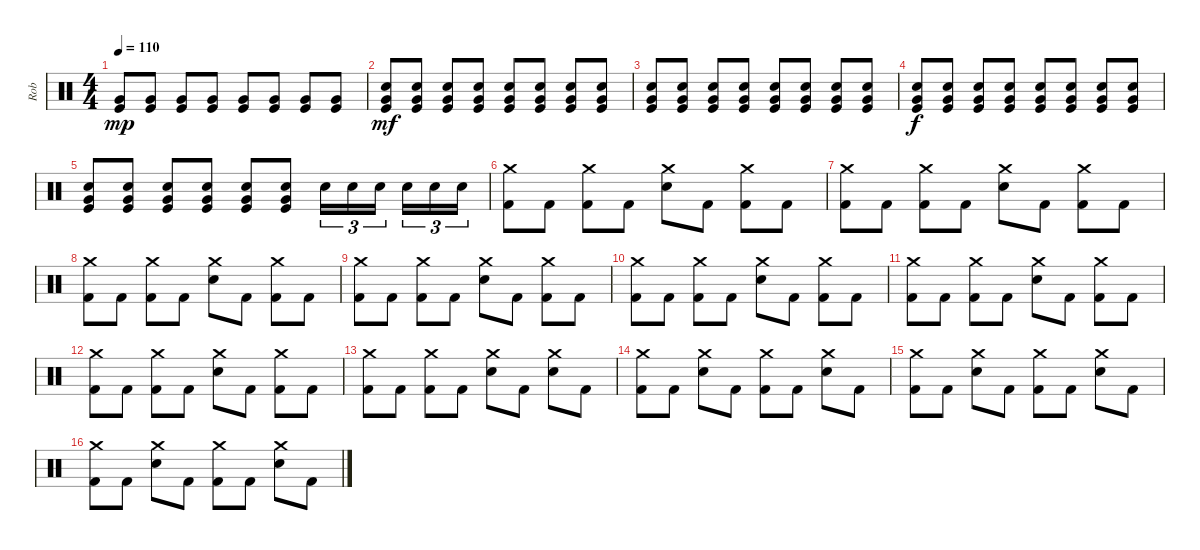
\track ("Rob" "Rob") {instrument percussion}
\staff {score}
\articulation defaults
\ts (4 4)
\tempo 110
\clef neutral
\ks c
("Very Low Tom (hit)" "Kick (hit)").8{dy mp} ("Very Low Tom (hit)" "Kick (hit)").8 ("Very Low Tom (hit)" "Kick (hit)").8 ("Very Low Tom (hit)" "Kick (hit)").8 ("Very Low Tom (hit)" "Kick (hit)").8 ("Very Low Tom (hit)" "Kick (hit)").8 ("Very Low Tom (hit)" "Kick (hit)").8 ("Very Low Tom (hit)" "Kick (hit)").8 |
("Very Low Tom (hit)" "Electric Snare (hit)" "Kick (hit)").8{dy mf} ("Very Low Tom (hit)" "Electric Snare (hit)" "Kick (hit)").8 ("Very Low Tom (hit)" "Electric Snare (hit)" "Kick (hit)").8 ("Very Low Tom (hit)" "Electric Snare (hit)" "Kick (hit)").8 ("Very Low Tom (hit)" "Electric Snare (hit)" "Kick (hit)").8 ("Very Low Tom (hit)" "Electric Snare (hit)" "Kick (hit)").8 ("Very Low Tom (hit)" "Electric Snare (hit)" "Kick (hit)").8 ("Very Low Tom (hit)" "Electric Snare (hit)" "Kick (hit)").8 |
("Very Low Tom (hit)" "Electric Snare (hit)" "Kick (hit)").8 ("Very Low Tom (hit)" "Electric Snare (hit)" "Kick (hit)").8 ("Very Low Tom (hit)" "Electric Snare (hit)" "Kick (hit)").8 ("Very Low Tom (hit)" "Electric Snare (hit)" "Kick (hit)").8 ("Very Low Tom (hit)" "Electric Snare (hit)" "Kick (hit)").8 ("Very Low Tom (hit)" "Electric Snare (hit)" "Kick (hit)").8 ("Very Low Tom (hit)" "Electric Snare (hit)" "Kick (hit)").8 ("Very Low Tom (hit)" "Electric Snare (hit)" "Kick (hit)").8 |
("Very Low Tom (hit)" "Electric Snare (hit)" "Kick (hit)").8{dy f} ("Very Low Tom (hit)" "Electric Snare (hit)" "Kick (hit)").8 ("Very Low Tom (hit)" "Electric Snare (hit)" "Kick (hit)").8 ("Very Low Tom (hit)" "Electric Snare (hit)" "Kick (hit)").8 ("Very Low Tom (hit)" "Electric Snare (hit)" "Kick (hit)").8 ("Very Low Tom (hit)" "Electric Snare (hit)" "Kick (hit)").8 ("Very Low Tom (hit)" "Electric Snare (hit)" "Kick (hit)").8 ("Very Low Tom (hit)" "Electric Snare (hit)" "Kick (hit)").8 |
("Very Low Tom (hit)" "Electric Snare (hit)" "Kick (hit)").8 ("Very Low Tom (hit)" "Electric Snare (hit)" "Kick (hit)").8 ("Very Low Tom (hit)" "Electric Snare (hit)" "Kick (hit)").8 ("Very Low Tom (hit)" "Electric Snare (hit)" "Kick (hit)").8 ("Very Low Tom (hit)" "Electric Snare (hit)" "Kick (hit)").8 ("Very Low Tom (hit)" "Electric Snare (hit)" "Kick (hit)").8 "Electric Snare (hit)".16{tu (3 2)} "Electric Snare (hit)".16{tu (3 2)} "Electric Snare (hit)".16{tu (3 2) beam splitsecondary} "Electric Snare (hit)".16{tu (3 2)} "Electric Snare (hit)".16{tu (3 2)} "Electric Snare (hit)".16{tu (3 2)} |
("Crash medium (hit)" "Kick (hit) 2").8 "Kick (hit) 2".8 ("Crash medium (hit)" "Kick (hit) 2").8 "Kick (hit) 2".8 ("Crash medium (hit)" "Electric Snare (hit)").8 "Kick (hit) 2".8 ("Crash medium (hit)" "Kick (hit) 2").8 "Kick (hit) 2".8 |
("Crash medium (hit)" "Kick (hit) 2").8 "Kick (hit) 2".8 ("Crash medium (hit)" "Kick (hit) 2").8 "Kick (hit) 2".8 ("Crash medium (hit)" "Electric Snare (hit)").8 "Kick (hit) 2".8 ("Crash medium (hit)" "Kick (hit) 2").8 "Kick (hit) 2".8 |
("Crash medium (hit)" "Kick (hit) 2").8 "Kick (hit) 2".8 ("Crash medium (hit)" "Kick (hit) 2").8 "Kick (hit) 2".8 ("Crash medium (hit)" "Electric Snare (hit)").8 "Kick (hit) 2".8 ("Crash medium (hit)" "Kick (hit) 2").8 "Kick (hit) 2".8 |
("Crash medium (hit)" "Kick (hit) 2").8 "Kick (hit) 2".8 ("Crash medium (hit)" "Kick (hit) 2").8 "Kick (hit) 2".8 ("Crash medium (hit)" "Electric Snare (hit)").8 "Kick (hit) 2".8 ("Crash medium (hit)" "Kick (hit) 2").8 "Kick (hit) 2".8 |
("Crash medium (hit)" "Kick (hit) 2").8 "Kick (hit) 2".8 ("Crash medium (hit)" "Kick (hit) 2").8 "Kick (hit) 2".8 ("Crash medium (hit)" "Electric Snare (hit)").8 "Kick (hit) 2".8 ("Crash medium (hit)" "Kick (hit) 2").8 "Kick (hit) 2".8 |
("Crash medium (hit)" "Kick (hit) 2").8 "Kick (hit) 2".8 ("Crash medium (hit)" "Kick (hit) 2").8 "Kick (hit) 2".8 ("Crash medium (hit)" "Electric Snare (hit)").8 "Kick (hit) 2".8 ("Crash medium (hit)" "Kick (hit) 2").8 "Kick (hit) 2".8 |
("Crash medium (hit)" "Kick (hit) 2").8 "Kick (hit) 2".8 ("Crash medium (hit)" "Kick (hit) 2").8 "Kick (hit) 2".8 ("Crash medium (hit)" "Electric Snare (hit)").8 "Kick (hit) 2".8 ("Crash medium (hit)" "Kick (hit) 2").8 "Kick (hit) 2".8 |
("Crash medium (hit)" "Kick (hit) 2").8 "Kick (hit) 2".8 ("Crash medium (hit)" "Kick (hit) 2").8 "Kick (hit) 2".8 ("Crash medium (hit)" "Electric Snare (hit)").8 "Kick (hit) 2".8 ("Crash medium (hit)" "Electric Snare (hit)").8 "Kick (hit) 2".8 |
("Crash medium (hit)" "Kick (hit) 2").8 "Kick (hit) 2".8 ("Crash medium (hit)" "Electric Snare (hit)").8 "Kick (hit) 2".8 ("Crash medium (hit)" "Kick (hit) 2").8 "Kick (hit) 2".8 ("Crash medium (hit)" "Electric Snare (hit)").8 "Kick (hit) 2".8 |
("Crash medium (hit)" "Kick (hit) 2").8 "Kick (hit) 2".8 ("Crash medium (hit)" "Electric Snare (hit)").8 "Kick (hit) 2".8 ("Crash medium (hit)" "Kick (hit) 2").8 "Kick (hit) 2".8 ("Crash medium (hit)" "Electric Snare (hit)").8 "Kick (hit) 2".8 |
("Crash medium (hit)" "Kick (hit) 2").8 "Kick (hit) 2".8 ("Crash medium (hit)" "Electric Snare (hit)").8 "Kick (hit) 2".8 ("Crash medium (hit)" "Kick (hit) 2").8 "Kick (hit) 2".8 ("Crash medium (hit)" "Electric Snare (hit)").8 "Kick (hit) 2".8
